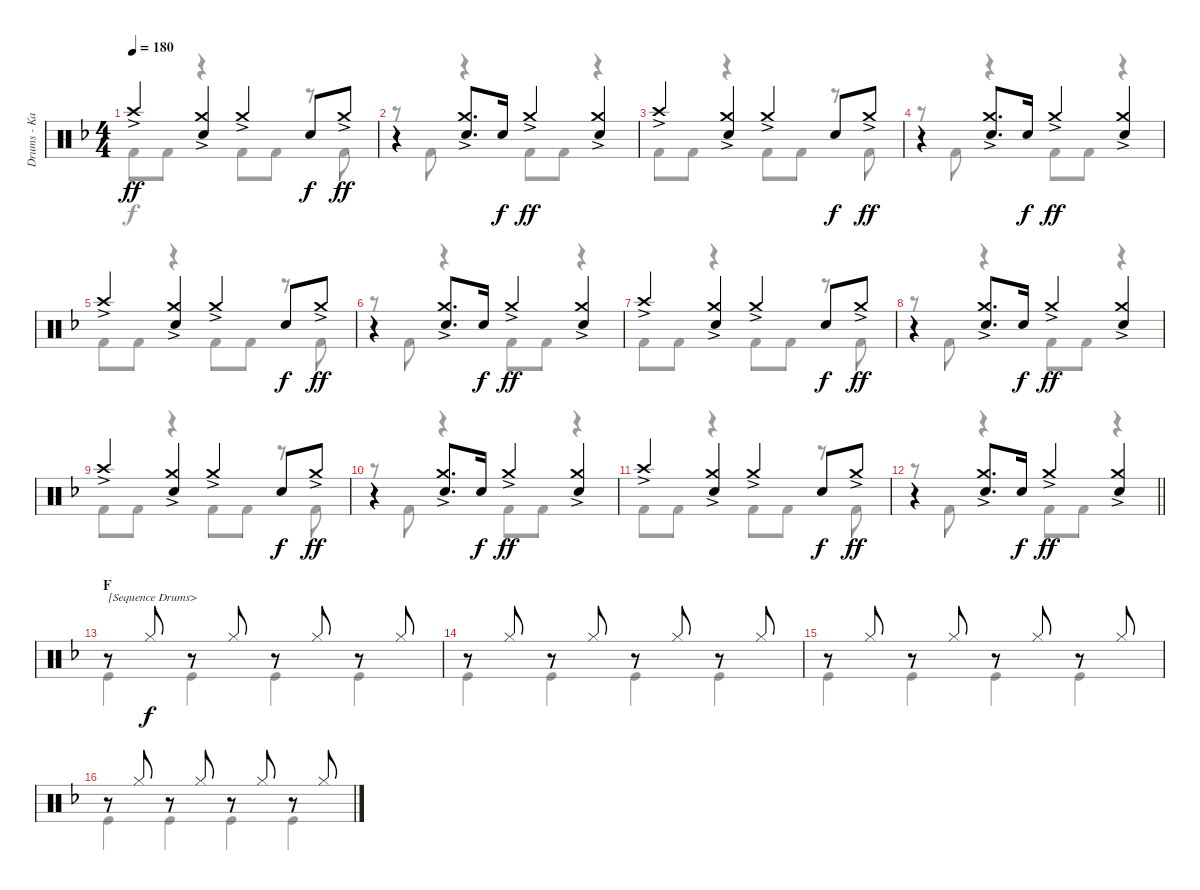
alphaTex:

\track ("Drums - Kai" "Drums - Ka") {instrument percussion}
\staff {score}
\articulation defaults
\voice
\ts (4 4)
\tempo 180
\clef neutral
\ks f "Crash high (hit)"{ac}.4{dy ff}
("Crash medium (hit)"{ac} "Snare (hit) 2").4 "Crash medium (hit)"{ac}.4 "Snare (hit) 2".8{dy f} "Crash medium (hit)"{ac}.8{dy ff} |
r.4 ("Crash medium (hit)"{ac} "Snare (hit) 2").8{d} "Snare (hit) 2".16{dy f} "Crash medium (hit)"{ac}.4{dy ff} ("Crash medium (hit)"{ac} "Snare (hit) 2").4 |
"Crash high (hit)"{ac}.4 ("Crash medium (hit)"{ac} "Snare (hit) 2").4 "Crash medium (hit)"{ac}.4 "Snare (hit) 2".8{dy f} "Crash medium (hit)"{ac}.8{dy ff} |
r.4 ("Crash medium (hit)"{ac} "Snare (hit) 2").8{d} "Snare (hit) 2".16{dy f} "Crash medium (hit)"{ac}.4{dy ff} ("Crash medium (hit)"{ac} "Snare (hit) 2").4 |
"Crash high (hit)"{ac}.4 ("Crash medium (hit)"{ac} "Snare (hit) 2").4 "Crash medium (hit)"{ac}.4 "Snare (hit) 2".8{dy f} "Crash medium (hit)"{ac}.8{dy ff} |
r.4 ("Crash medium (hit)"{ac} "Snare (hit) 2").8{d} "Snare (hit) 2".16{dy f} "Crash medium (hit)"{ac}.4{dy ff} ("Crash medium (hit)"{ac} "Snare (hit) 2").4 |
"Crash high (hit)"{ac}.4 ("Crash medium (hit)"{ac} "Snare (hit) 2").4 "Crash medium (hit)"{ac}.4 "Snare (hit) 2".8{dy f} "Crash medium (hit)"{ac}.8{dy ff} |
r.4 ("Crash medium (hit)"{ac} "Snare (hit) 2").8{d} "Snare (hit) 2".16{dy f} "Crash medium (hit)"{ac}.4{dy ff} ("Crash medium (hit)"{ac} "Snare (hit) 2").4 |
"Crash high (hit)"{ac}.4 ("Crash medium (hit)"{ac} "Snare (hit) 2").4 "Crash medium (hit)"{ac}.4 "Snare (hit) 2".8{dy f} "Crash medium (hit)"{ac}.8{dy ff} |
r.4 ("Crash medium (hit)"{ac} "Snare (hit) 2").8{d} "Snare (hit) 2".16{dy f} "Crash medium (hit)"{ac}.4{dy ff} ("Crash medium (hit)"{ac} "Snare (hit) 2").4 |
"Crash high (hit)"{ac}.4 ("Crash medium (hit)"{ac} "Snare (hit) 2").4 "Crash medium (hit)"{ac}.4 "Snare (hit) 2".8{dy f} "Crash medium (hit)"{ac}.8{dy ff} |
\barLineRight lightlight
r.4 ("Crash medium (hit)"{ac} "Snare (hit) 2").8{d} "Snare (hit) 2".16{dy f} "Crash medium (hit)"{ac}.4{dy ff} ("Crash medium (hit)"{ac} "Snare (hit) 2").4 |
\section ("" "F")
r.8{txt "[Sequence Drums>"} "Hi-Hat (closed)".8{dy f} r.8 "Hi-Hat (closed)".8 r.8 "Hi-Hat (closed)".8 r.8 "Hi-Hat (closed)".8 |
r.8 "Hi-Hat (closed)".8 r.8 "Hi-Hat (closed)".8 r.8 "Hi-Hat (closed)".8 r.8 "Hi-Hat (closed)".8 |
r.8 "Hi-Hat (closed)".8 r.8 "Hi-Hat (closed)".8 r.8 "Hi-Hat (closed)".8 r.8 "Hi-Hat (closed)".8 |
r.8 "Hi-Hat (closed)".8 r.8 "Hi-Hat (closed)".8 r.8 "Hi-Hat (closed)".8 r.8 "Hi-Hat (closed)".8
\voice
\clef neutral
\ottava regular
\simile none
\ks f "Kick (hit) 2".8{dy f} "Kick (hit) 2".8
r.4 "Kick (hit) 2".8 "Kick (hit) 2".8 r.8 "Kick (hit) 2".8 |
r.8 "Kick (hit) 2".8 r.4 "Kick (hit) 2".8 "Kick (hit) 2".8 r.4 |
"Kick (hit) 2".8 "Kick (hit) 2".8 r.4 "Kick (hit) 2".8 "Kick (hit) 2".8 r.8 "Kick (hit) 2".8 |
r.8 "Kick (hit) 2".8 r.4 "Kick (hit) 2".8 "Kick (hit) 2".8 r.4 |
"Kick (hit) 2".8 "Kick (hit) 2".8 r.4 "Kick (hit) 2".8 "Kick (hit) 2".8 r.8 "Kick (hit) 2".8 |
r.8 "Kick (hit) 2".8 r.4 "Kick (hit) 2".8 "Kick (hit) 2".8 r.4 |
"Kick (hit) 2".8 "Kick (hit) 2".8 r.4 "Kick (hit) 2".8 "Kick (hit) 2".8 r.8 "Kick (hit) 2".8 |
r.8 "Kick (hit) 2".8 r.4 "Kick (hit) 2".8 "Kick (hit) 2".8 r.4 |
"Kick (hit) 2".8 "Kick (hit) 2".8 r.4 "Kick (hit) 2".8 "Kick (hit) 2".8 r.8 "Kick (hit) 2".8 |
r.8 "Kick (hit) 2".8 r.4 "Kick (hit) 2".8 "Kick (hit) 2".8 r.4 |
"Kick (hit) 2".8 "Kick (hit) 2".8 r.4 "Kick (hit) 2".8 "Kick (hit) 2".8 r.8 "Kick (hit) 2".8 |
\barLineRight lightlight
r.8 "Kick (hit) 2".8 r.4 "Kick (hit) 2".8 "Kick (hit) 2".8 r.4 |
"Kick (hit)".4 "Kick (hit)".4 "Kick (hit)".4 "Kick (hit)".4 |
"Kick (hit)".4 "Kick (hit)".4 "Kick (hit)".4 "Kick (hit)".4 |
"Kick (hit)".4 "Kick (hit)".4 "Kick (hit)".4 "Kick (hit)".4 |
"Kick (hit)".4 "Kick (hit)".4 "Kick (hit)".4 "Kick (hit)".4
